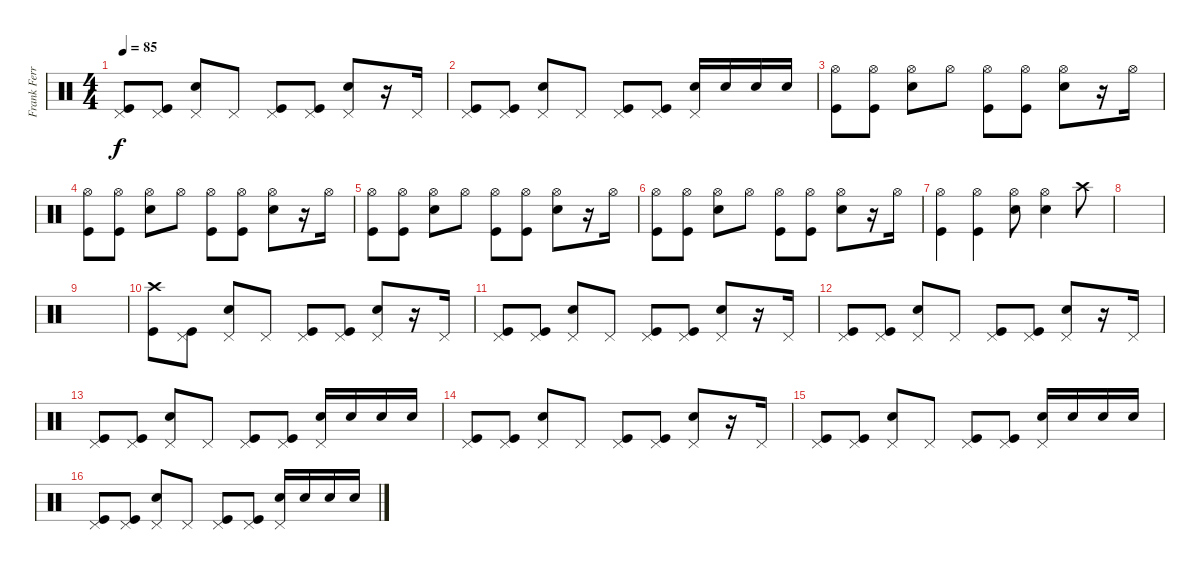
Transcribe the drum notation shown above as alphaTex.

\track ("Frank Ferrer" "Frank Ferr") {instrument percussion}
\staff {score}
\articulation defaults
\ts (4 4)
\tempo 85
\clef neutral
\ks c
("Kick (hit)" "Pedal Hi-Hat (hit)").8{dy f} ("Kick (hit)" "Pedal Hi-Hat (hit)").8 ("Snare (hit) 2" "Pedal Hi-Hat (hit)").8 "Pedal Hi-Hat (hit)".8 ("Kick (hit)" "Pedal Hi-Hat (hit)").8 ("Kick (hit)" "Pedal Hi-Hat (hit)").8 ("Snare (hit) 2" "Pedal Hi-Hat (hit)").8 r.16 "Pedal Hi-Hat (hit)".16 |
("Kick (hit)" "Pedal Hi-Hat (hit)").8 ("Kick (hit)" "Pedal Hi-Hat (hit)").8 ("Snare (hit) 2" "Pedal Hi-Hat (hit)").8 "Pedal Hi-Hat (hit)".8 ("Kick (hit)" "Pedal Hi-Hat (hit)").8 ("Kick (hit)" "Pedal Hi-Hat (hit)").8 ("Snare (hit) 2" "Pedal Hi-Hat (hit)").16 "Snare (hit) 2".16 "Snare (hit) 2".16 "Snare (hit) 2".16 |
("Kick (hit)" "Hi-Hat (open)").8 ("Kick (hit)" "Hi-Hat (open)").8 ("Snare (hit) 2" "Hi-Hat (open)").8 "Hi-Hat (open)".8 ("Kick (hit)" "Hi-Hat (open)").8 ("Kick (hit)" "Hi-Hat (open)").8 ("Snare (hit) 2" "Hi-Hat (open)").8 r.16 "Hi-Hat (open)".16 |
("Kick (hit)" "Hi-Hat (open)").8 ("Kick (hit)" "Hi-Hat (open)").8 ("Snare (hit) 2" "Hi-Hat (open)").8 "Hi-Hat (open)".8 ("Kick (hit)" "Hi-Hat (open)").8 ("Kick (hit)" "Hi-Hat (open)").8 ("Snare (hit) 2" "Hi-Hat (open)").8 r.16 "Hi-Hat (open)".16 |
("Kick (hit)" "Hi-Hat (open)").8 ("Kick (hit)" "Hi-Hat (open)").8 ("Snare (hit) 2" "Hi-Hat (open)").8 "Hi-Hat (open)".8 ("Kick (hit)" "Hi-Hat (open)").8 ("Kick (hit)" "Hi-Hat (open)").8 ("Snare (hit) 2" "Hi-Hat (open)").8 r.16 "Hi-Hat (open)".16 |
("Kick (hit)" "Hi-Hat (open)").8 ("Kick (hit)" "Hi-Hat (open)").8 ("Snare (hit) 2" "Hi-Hat (open)").8 "Hi-Hat (open)".8 ("Kick (hit)" "Hi-Hat (open)").8 ("Kick (hit)" "Hi-Hat (open)").8 ("Snare (hit) 2" "Hi-Hat (open)").8 r.16 "Hi-Hat (open)".16 |
("Kick (hit)" "Hi-Hat (open)").4 ("Kick (hit)" "Hi-Hat (open)").4 ("Snare (hit) 2" "Hi-Hat (open)").8 ("Snare (hit) 2" "Hi-Hat (open)").4 "Crash high (hit)".8 |
|
|
("Kick (hit)" "Crash high (hit)").8 ("Kick (hit)" "Pedal Hi-Hat (hit)").8 ("Snare (hit) 2" "Pedal Hi-Hat (hit)").8 "Pedal Hi-Hat (hit)".8 ("Kick (hit)" "Pedal Hi-Hat (hit)").8 ("Kick (hit)" "Pedal Hi-Hat (hit)").8 ("Snare (hit) 2" "Pedal Hi-Hat (hit)").8 r.16 "Pedal Hi-Hat (hit)".16 |
("Kick (hit)" "Pedal Hi-Hat (hit)").8 ("Kick (hit)" "Pedal Hi-Hat (hit)").8 ("Snare (hit) 2" "Pedal Hi-Hat (hit)").8 "Pedal Hi-Hat (hit)".8 ("Kick (hit)" "Pedal Hi-Hat (hit)").8 ("Kick (hit)" "Pedal Hi-Hat (hit)").8 ("Snare (hit) 2" "Pedal Hi-Hat (hit)").8 r.16 "Pedal Hi-Hat (hit)".16 |
("Kick (hit)" "Pedal Hi-Hat (hit)").8 ("Kick (hit)" "Pedal Hi-Hat (hit)").8 ("Snare (hit) 2" "Pedal Hi-Hat (hit)").8 "Pedal Hi-Hat (hit)".8 ("Kick (hit)" "Pedal Hi-Hat (hit)").8 ("Kick (hit)" "Pedal Hi-Hat (hit)").8 ("Snare (hit) 2" "Pedal Hi-Hat (hit)").8 r.16 "Pedal Hi-Hat (hit)".16 |
("Kick (hit)" "Pedal Hi-Hat (hit)").8 ("Kick (hit)" "Pedal Hi-Hat (hit)").8 ("Snare (hit) 2" "Pedal Hi-Hat (hit)").8 "Pedal Hi-Hat (hit)".8 ("Kick (hit)" "Pedal Hi-Hat (hit)").8 ("Kick (hit)" "Pedal Hi-Hat (hit)").8 ("Snare (hit) 2" "Pedal Hi-Hat (hit)").16 "Snare (hit) 2".16 "Snare (hit) 2".16 "Snare (hit) 2".16 |
("Kick (hit)" "Pedal Hi-Hat (hit)").8 ("Kick (hit)" "Pedal Hi-Hat (hit)").8 ("Snare (hit) 2" "Pedal Hi-Hat (hit)").8 "Pedal Hi-Hat (hit)".8 ("Kick (hit)" "Pedal Hi-Hat (hit)").8 ("Kick (hit)" "Pedal Hi-Hat (hit)").8 ("Snare (hit) 2" "Pedal Hi-Hat (hit)").8 r.16 "Pedal Hi-Hat (hit)".16 |
("Kick (hit)" "Pedal Hi-Hat (hit)").8 ("Kick (hit)" "Pedal Hi-Hat (hit)").8 ("Snare (hit) 2" "Pedal Hi-Hat (hit)").8 "Pedal Hi-Hat (hit)".8 ("Kick (hit)" "Pedal Hi-Hat (hit)").8 ("Kick (hit)" "Pedal Hi-Hat (hit)").8 ("Snare (hit) 2" "Pedal Hi-Hat (hit)").16 "Snare (hit) 2".16 "Snare (hit) 2".16 "Snare (hit) 2".16 |
("Kick (hit)" "Pedal Hi-Hat (hit)").8 ("Kick (hit)" "Pedal Hi-Hat (hit)").8 ("Snare (hit) 2" "Pedal Hi-Hat (hit)").8 "Pedal Hi-Hat (hit)".8 ("Kick (hit)" "Pedal Hi-Hat (hit)").8 ("Kick (hit)" "Pedal Hi-Hat (hit)").8 ("Snare (hit) 2" "Pedal Hi-Hat (hit)").16 "Snare (hit) 2".16 "Snare (hit) 2".16 "Snare (hit) 2".16
